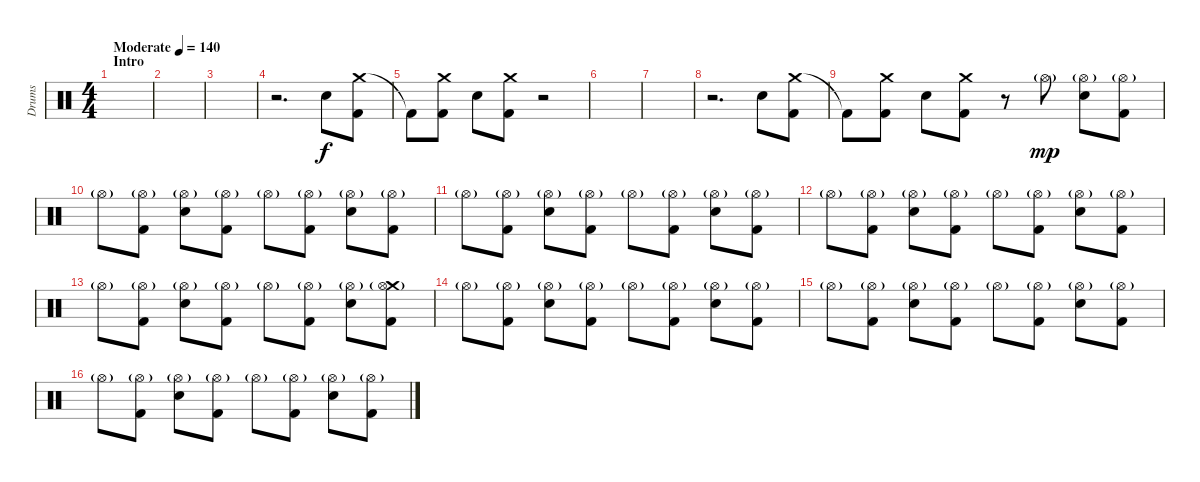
\track ("Drums" "Drums") {instrument percussion}
\staff {score}
\articulation defaults
\ts (4 4)
\section ("" "Intro")
\tempo (140 "Moderate")
\clef neutral
\ks c
|
|
|
r.2{d} "Electric Snare (hit)".8 ("Crash medium (hit)" "Kick (hit) 2").8 |
"Kick (hit) 2"{t}.8 ("Crash medium (hit)" "Kick (hit) 2").8 "Electric Snare (hit)".8 ("Crash medium (hit)" "Kick (hit) 2").8 r.2 |
|
|
r.2{d} "Electric Snare (hit)".8 ("Crash medium (hit)" "Kick (hit) 2").8 |
"Kick (hit) 2"{t}.8 ("Crash medium (hit)" "Kick (hit) 2").8 "Electric Snare (hit)".8 ("Crash medium (hit)" "Kick (hit) 2").8 r.8 "Hi-Hat (open)"{g}.8{dy mp} ("Hi-Hat (open)"{g} "Electric Snare (hit)").8 ("Hi-Hat (open)"{g} "Kick (hit) 2").8 |
"Hi-Hat (open)"{g}.8 ("Hi-Hat (open)"{g} "Kick (hit) 2").8 ("Hi-Hat (open)"{g} "Electric Snare (hit)").8 ("Hi-Hat (open)"{g} "Kick (hit) 2").8 "Hi-Hat (open)"{g}.8 ("Hi-Hat (open)"{g} "Kick (hit) 2").8 ("Hi-Hat (open)"{g} "Electric Snare (hit)").8 ("Hi-Hat (open)"{g} "Kick (hit) 2").8 |
"Hi-Hat (open)"{g}.8 ("Hi-Hat (open)"{g} "Kick (hit) 2").8 ("Hi-Hat (open)"{g} "Electric Snare (hit)").8 ("Hi-Hat (open)"{g} "Kick (hit) 2").8 "Hi-Hat (open)"{g}.8 ("Hi-Hat (open)"{g} "Kick (hit) 2").8 ("Hi-Hat (open)"{g} "Electric Snare (hit)").8 ("Hi-Hat (open)"{g} "Kick (hit) 2").8 |
"Hi-Hat (open)"{g}.8 ("Hi-Hat (open)"{g} "Kick (hit) 2").8 ("Hi-Hat (open)"{g} "Electric Snare (hit)").8 ("Hi-Hat (open)"{g} "Kick (hit) 2").8 "Hi-Hat (open)"{g}.8 ("Hi-Hat (open)"{g} "Kick (hit) 2").8 ("Hi-Hat (open)"{g} "Electric Snare (hit)").8 ("Hi-Hat (open)"{g} "Kick (hit) 2").8 |
"Hi-Hat (open)"{g}.8 ("Hi-Hat (open)"{g} "Kick (hit) 2").8 ("Hi-Hat (open)"{g} "Electric Snare (hit)").8 ("Hi-Hat (open)"{g} "Kick (hit) 2").8 "Hi-Hat (open)"{g}.8 ("Hi-Hat (open)"{g} "Kick (hit) 2").8 ("Hi-Hat (open)"{g} "Electric Snare (hit)").8 ("Crash medium (hit)" "Hi-Hat (open)"{g} "Kick (hit) 2").8 |
"Hi-Hat (open)"{g}.8 ("Hi-Hat (open)"{g} "Kick (hit) 2").8 ("Hi-Hat (open)"{g} "Electric Snare (hit)").8 ("Hi-Hat (open)"{g} "Kick (hit) 2").8 "Hi-Hat (open)"{g}.8 ("Hi-Hat (open)"{g} "Kick (hit) 2").8 ("Hi-Hat (open)"{g} "Electric Snare (hit)").8 ("Hi-Hat (open)"{g} "Kick (hit) 2").8 |
"Hi-Hat (open)"{g}.8 ("Hi-Hat (open)"{g} "Kick (hit) 2").8 ("Hi-Hat (open)"{g} "Electric Snare (hit)").8 ("Hi-Hat (open)"{g} "Kick (hit) 2").8 "Hi-Hat (open)"{g}.8 ("Hi-Hat (open)"{g} "Kick (hit) 2").8 ("Hi-Hat (open)"{g} "Electric Snare (hit)").8 ("Hi-Hat (open)"{g} "Kick (hit) 2").8 |
"Hi-Hat (open)"{g}.8 ("Hi-Hat (open)"{g} "Kick (hit) 2").8 ("Hi-Hat (open)"{g} "Electric Snare (hit)").8 ("Hi-Hat (open)"{g} "Kick (hit) 2").8 "Hi-Hat (open)"{g}.8 ("Hi-Hat (open)"{g} "Kick (hit) 2").8 ("Hi-Hat (open)"{g} "Electric Snare (hit)").8 ("Hi-Hat (open)"{g} "Kick (hit) 2").8
